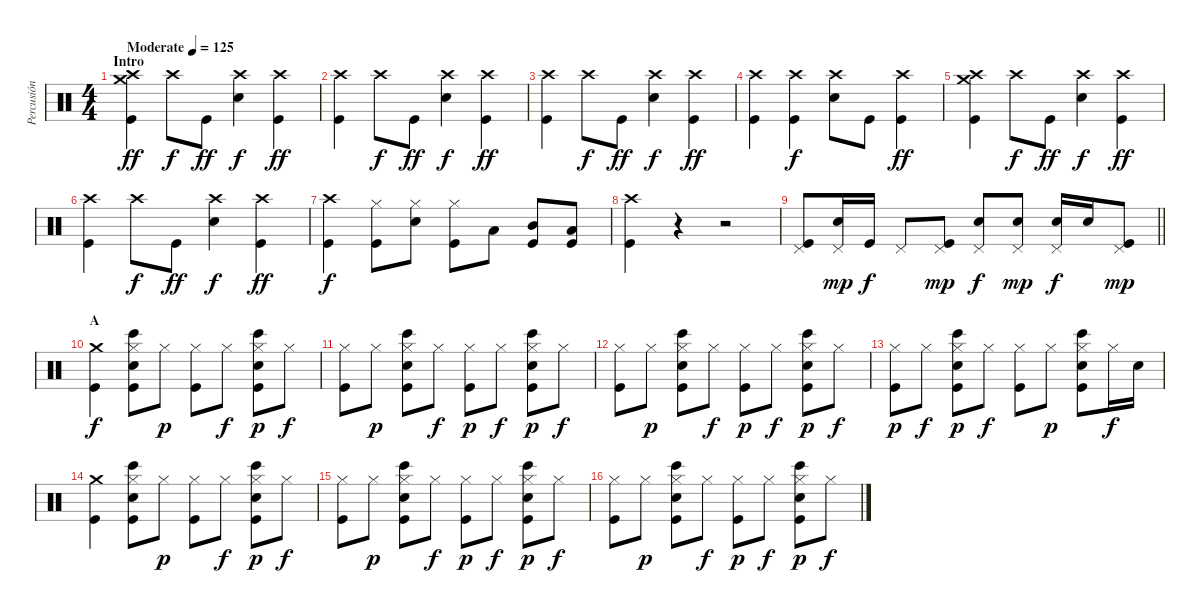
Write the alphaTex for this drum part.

\track ("Percusión" "Percusión") {instrument percussion}
\staff {score}
\articulation defaults
\ts (4 4)
\section ("" "Intro")
\tempo (125 "Moderate")
\clef neutral
\ks c
("Crash high (hit)" "Crash medium (hit)" "Kick (hit)").4{dy ff} "Crash high (hit)".8{dy f} "Kick (hit)".8{dy ff} ("Crash high (hit)" "Snare (hit) 2").4{dy f} ("Crash high (hit)" "Kick (hit)").4{dy ff} |
("Crash high (hit)" "Kick (hit)").4 "Crash high (hit)".8{dy f} "Kick (hit)".8{dy ff} ("Crash high (hit)" "Snare (hit) 2").4{dy f} ("Crash high (hit)" "Kick (hit)").4{dy ff} |
("Crash high (hit)" "Kick (hit)").4 "Crash high (hit)".8{dy f} "Kick (hit)".8{dy ff} ("Crash high (hit)" "Snare (hit) 2").4{dy f} ("Crash high (hit)" "Kick (hit)").4{dy ff} |
("Crash high (hit)" "Kick (hit)").4 ("Crash high (hit)" "Kick (hit)").4{dy f} ("Crash high (hit)" "Snare (hit) 2").8 "Kick (hit)".8 ("Crash high (hit)" "Kick (hit)").4{dy ff} |
("Crash high (hit)" "Crash medium (hit)" "Kick (hit)").4 "Crash high (hit)".8{dy f} "Kick (hit)".8{dy ff} ("Crash high (hit)" "Snare (hit) 2").4{dy f} ("Crash high (hit)" "Kick (hit)").4{dy ff} |
("Crash high (hit)" "Kick (hit)").4 "Crash high (hit)".8{dy f} "Kick (hit)".8{dy ff} ("Crash high (hit)" "Snare (hit) 2").4{dy f} ("Crash high (hit)" "Kick (hit)").4{dy ff} |
("Crash high (hit)" "Kick (hit)").4{dy f} ("Hi-Hat (closed)" "Kick (hit)").8 ("Hi-Hat (closed)" "Snare (hit) 2").8 ("Hi-Hat (closed)" "Kick (hit)").8 "Low Floor Tom (hit)".8 ("Mid Tom (hit)" "Kick (hit)").8 ("Low Tom (hit)" "Kick (hit)").8 |
("Crash high (hit)" "Kick (hit)").4 r.4 r.2 |
\barLineRight lightlight
("Pedal Hi-Hat (hit)" "Kick (hit)").8 ("Pedal Hi-Hat (hit)" "Snare (hit) 2").16{dy mp} "Kick (hit)".16{dy f} "Pedal Hi-Hat (hit)".8 ("Pedal Hi-Hat (hit)" "Kick (hit)").8{dy mp} ("Pedal Hi-Hat (hit)" "Snare (hit) 2").8{dy f} ("Pedal Hi-Hat (hit)" "Snare (hit) 2").8{dy mp} ("Pedal Hi-Hat (hit)" "Snare (hit) 2").16{dy f} "Snare (hit) 2".16 ("Pedal Hi-Hat (hit)" "Kick (hit)").8{dy mp} |
\section ("" "A ")
("Crash medium (hit)" "Kick (hit)").4{dy f} ("Hi-Hat (closed)" "Bongo High (hit)" "Snare (hit) 2" "Kick (hit)").8 "Hi-Hat (closed)".8{dy p} ("Hi-Hat (closed)" "Kick (hit)").8 "Hi-Hat (closed)".8{dy f} ("Hi-Hat (closed)" "Bongo High (hit)" "Snare (hit) 2" "Kick (hit)").8{dy p} "Hi-Hat (closed)".8{dy f} |
("Hi-Hat (closed)" "Kick (hit)").8 "Hi-Hat (closed)".8{dy p} ("Hi-Hat (closed)" "Bongo High (hit)" "Snare (hit) 2" "Kick (hit)").8 "Hi-Hat (closed)".8{dy f} ("Hi-Hat (closed)" "Kick (hit)").8{dy p} "Hi-Hat (closed)".8{dy f} ("Hi-Hat (closed)" "Bongo High (hit)" "Snare (hit) 2" "Kick (hit)").8{dy p} "Hi-Hat (closed)".8{dy f} |
("Hi-Hat (closed)" "Kick (hit)").8 "Hi-Hat (closed)".8{dy p} ("Hi-Hat (closed)" "Bongo High (hit)" "Snare (hit) 2" "Kick (hit)").8 "Hi-Hat (closed)".8{dy f} ("Hi-Hat (closed)" "Kick (hit)").8{dy p} "Hi-Hat (closed)".8{dy f} ("Hi-Hat (closed)" "Bongo High (hit)" "Snare (hit) 2" "Kick (hit)").8{dy p} "Hi-Hat (closed)".8{dy f} |
("Hi-Hat (closed)" "Kick (hit)").8{dy p} "Hi-Hat (closed)".8{dy f} ("Hi-Hat (closed)" "Bongo High (hit)" "Snare (hit) 2" "Kick (hit)").8{dy p} "Hi-Hat (closed)".8{dy f} ("Hi-Hat (closed)" "Kick (hit)").8 "Hi-Hat (closed)".8{dy p} ("Hi-Hat (closed)" "Bongo High (hit)" "Snare (hit) 2" "Kick (hit)").8 "Hi-Hat (closed)".16{dy f} "Snare (hit) 2".16 |
("Crash medium (hit)" "Kick (hit)").4 ("Hi-Hat (closed)" "Bongo High (hit)" "Snare (hit) 2" "Kick (hit)").8 "Hi-Hat (closed)".8{dy p} ("Hi-Hat (closed)" "Kick (hit)").8 "Hi-Hat (closed)".8{dy f} ("Hi-Hat (closed)" "Bongo High (hit)" "Snare (hit) 2" "Kick (hit)").8{dy p} "Hi-Hat (closed)".8{dy f} |
("Hi-Hat (closed)" "Kick (hit)").8 "Hi-Hat (closed)".8{dy p} ("Hi-Hat (closed)" "Bongo High (hit)" "Snare (hit) 2" "Kick (hit)").8 "Hi-Hat (closed)".8{dy f} ("Hi-Hat (closed)" "Kick (hit)").8{dy p} "Hi-Hat (closed)".8{dy f} ("Hi-Hat (closed)" "Bongo High (hit)" "Snare (hit) 2" "Kick (hit)").8{dy p} "Hi-Hat (closed)".8{dy f} |
("Hi-Hat (closed)" "Kick (hit)").8 "Hi-Hat (closed)".8{dy p} ("Hi-Hat (closed)" "Bongo High (hit)" "Snare (hit) 2" "Kick (hit)").8 "Hi-Hat (closed)".8{dy f} ("Hi-Hat (closed)" "Kick (hit)").8{dy p} "Hi-Hat (closed)".8{dy f} ("Hi-Hat (closed)" "Bongo High (hit)" "Snare (hit) 2" "Kick (hit)").8{dy p} "Hi-Hat (closed)".8{dy f}
